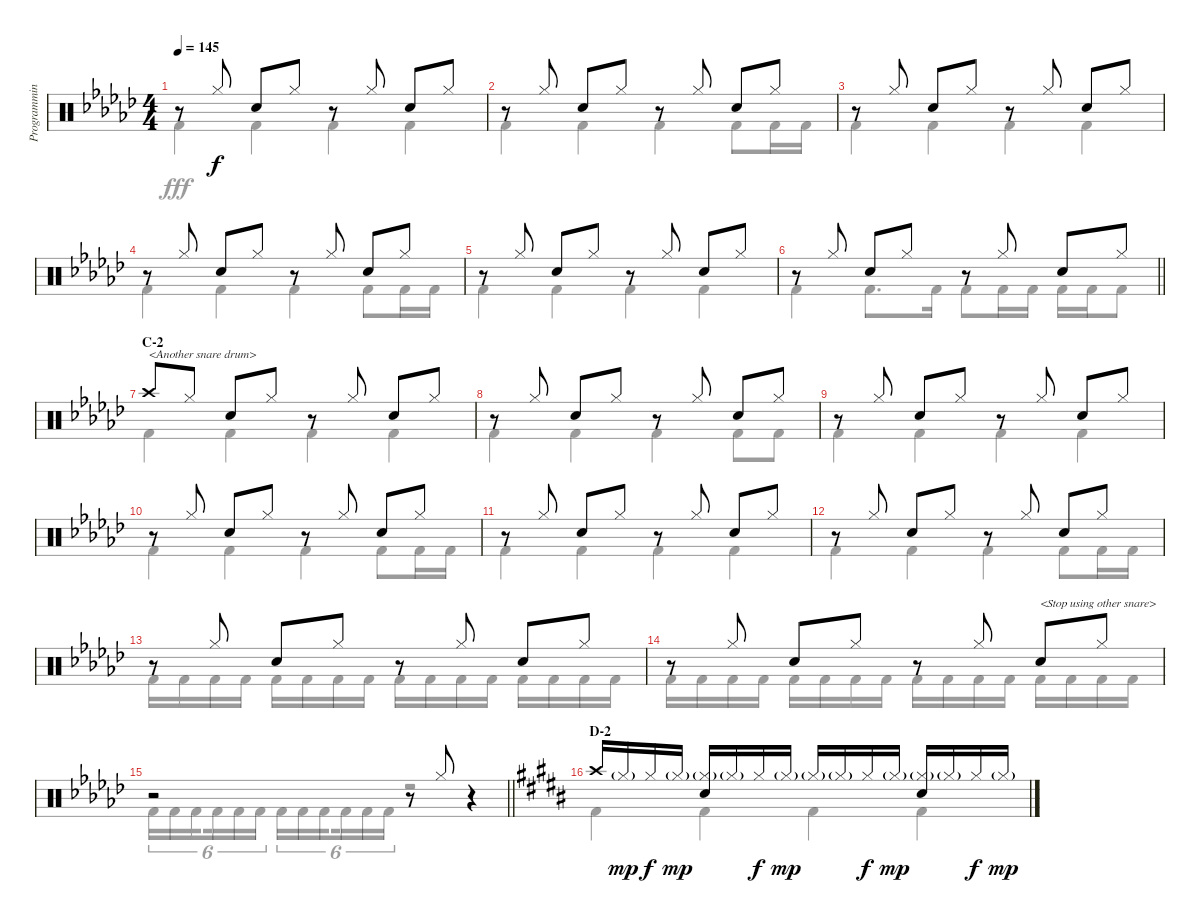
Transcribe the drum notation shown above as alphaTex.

\track ("Programming Drums I" "Programmin") {instrument percussion}
\staff {score}
\articulation defaults
\voice
\ts (4 4)
\tempo 145
\clef neutral
\ks gb
r.8{dy f} "Hi-Hat (closed)".8 "Snare (hit) 2".8 "Hi-Hat (closed)".8 r.8 "Hi-Hat (closed)".8 "Snare (hit) 2".8 "Hi-Hat (closed)".8 |
r.8 "Hi-Hat (closed)".8 "Snare (hit) 2".8 "Hi-Hat (closed)".8 r.8 "Hi-Hat (closed)".8 "Snare (hit) 2".8 "Hi-Hat (closed)".8 |
r.8 "Hi-Hat (closed)".8 "Snare (hit) 2".8 "Hi-Hat (closed)".8 r.8 "Hi-Hat (closed)".8 "Snare (hit) 2".8 "Hi-Hat (closed)".8 |
r.8 "Hi-Hat (closed)".8 "Snare (hit) 2".8 "Hi-Hat (closed)".8 r.8 "Hi-Hat (closed)".8 "Snare (hit) 2".8 "Hi-Hat (closed)".8 |
r.8 "Hi-Hat (closed)".8 "Snare (hit) 2".8 "Hi-Hat (closed)".8 r.8 "Hi-Hat (closed)".8 "Snare (hit) 2".8 "Hi-Hat (closed)".8 |
\barLineRight lightlight
r.8 "Hi-Hat (closed)".8 "Snare (hit) 2".8 "Hi-Hat (closed)".8 r.8 "Hi-Hat (closed)".8 "Snare (hit) 2".8 "Hi-Hat (closed)".8 |
\section ("" "C-2")
"Crash high (hit)".8{txt "<Another snare drum>"} "Hi-Hat (closed)".8 "Snare (hit) 2".8 "Hi-Hat (closed)".8 r.8 "Hi-Hat (closed)".8 "Snare (hit) 2".8 "Hi-Hat (closed)".8 |
r.8 "Hi-Hat (closed)".8 "Snare (hit) 2".8 "Hi-Hat (closed)".8 r.8 "Hi-Hat (closed)".8 "Snare (hit) 2".8 "Hi-Hat (closed)".8 |
r.8 "Hi-Hat (closed)".8 "Snare (hit) 2".8 "Hi-Hat (closed)".8 r.8 "Hi-Hat (closed)".8 "Snare (hit) 2".8 "Hi-Hat (closed)".8 |
r.8 "Hi-Hat (closed)".8 "Snare (hit) 2".8 "Hi-Hat (closed)".8 r.8 "Hi-Hat (closed)".8 "Snare (hit) 2".8 "Hi-Hat (closed)".8 |
r.8 "Hi-Hat (closed)".8 "Snare (hit) 2".8 "Hi-Hat (closed)".8 r.8 "Hi-Hat (closed)".8 "Snare (hit) 2".8 "Hi-Hat (closed)".8 |
r.8 "Hi-Hat (closed)".8 "Snare (hit) 2".8 "Hi-Hat (closed)".8 r.8 "Hi-Hat (closed)".8 "Snare (hit) 2".8 "Hi-Hat (closed)".8 |
r.8 "Hi-Hat (closed)".8 "Snare (hit) 2".8 "Hi-Hat (closed)".8 r.8 "Hi-Hat (closed)".8 "Snare (hit) 2".8 "Hi-Hat (closed)".8 |
r.8 "Hi-Hat (closed)".8 "Snare (hit) 2".8 "Hi-Hat (closed)".8 r.8 "Hi-Hat (closed)".8 "Snare (hit) 2".8{txt "<Stop using other snare>"} "Hi-Hat (closed)".8 |
\barLineRight lightlight
r.2 r.8 "Hi-Hat (closed)".8 r.4 |
\section ("" "D-2")
\ks b "Crash high (hit)".16 "Hi-Hat (closed)"{g}.16{dy mp} "Hi-Hat (closed)".16{dy f} "Hi-Hat (closed)"{g}.16{dy mp}
("Hi-Hat (closed)"{g} "Snare (hit) 2").16 "Hi-Hat (closed)"{g}.16 "Hi-Hat (closed)".16{dy f} "Hi-Hat (closed)"{g}.16{dy mp} "Hi-Hat (closed)"{g}.16 "Hi-Hat (closed)"{g}.16 "Hi-Hat (closed)".16{dy f} "Hi-Hat (closed)"{g}.16{dy mp} ("Hi-Hat (closed)"{g} "Snare (hit) 2").16 "Hi-Hat (closed)"{g}.16 "Hi-Hat (closed)".16{dy f} "Hi-Hat (closed)"{g}.16{dy mp}
\voice
\clef neutral
\ottava regular
\simile none
\ks gb "Kick (hit) 2".4{dy fff} "Kick (hit) 2".4 "Kick (hit) 2".4 "Kick (hit) 2".4
|
"Kick (hit) 2".4 "Kick (hit) 2".4 "Kick (hit) 2".4 "Kick (hit) 2".8 "Kick (hit) 2".16 "Kick (hit) 2".16 |
"Kick (hit) 2".4 "Kick (hit) 2".4 "Kick (hit) 2".4 "Kick (hit) 2".4 |
"Kick (hit) 2".4 "Kick (hit) 2".4 "Kick (hit) 2".4 "Kick (hit) 2".8 "Kick (hit) 2".16 "Kick (hit) 2".16 |
"Kick (hit) 2".4 "Kick (hit) 2".4 "Kick (hit) 2".4 "Kick (hit) 2".4 |
\barLineRight lightlight "Kick (hit) 2".4 "Kick (hit) 2".8{d} "Kick (hit) 2".16 "Kick (hit) 2".8 "Kick (hit) 2".16 "Kick (hit) 2".16 "Kick (hit) 2".16 "Kick (hit) 2".16 "Kick (hit) 2".8
|
"Kick (hit) 2".4 "Kick (hit) 2".4 "Kick (hit) 2".4 "Kick (hit) 2".4 |
"Kick (hit) 2".4 "Kick (hit) 2".4 "Kick (hit) 2".4 "Kick (hit) 2".8 "Kick (hit) 2".8 |
"Kick (hit) 2".4 "Kick (hit) 2".4 "Kick (hit) 2".4 "Kick (hit) 2".4 |
"Kick (hit) 2".4 "Kick (hit) 2".4 "Kick (hit) 2".4 "Kick (hit) 2".8 "Kick (hit) 2".16 "Kick (hit) 2".16 |
"Kick (hit) 2".4 "Kick (hit) 2".4 "Kick (hit) 2".4 "Kick (hit) 2".4 |
"Kick (hit) 2".4 "Kick (hit) 2".4 "Kick (hit) 2".4 "Kick (hit) 2".8 "Kick (hit) 2".16 "Kick (hit) 2".16 |
"Kick (hit) 2".16 "Kick (hit) 2".16 "Kick (hit) 2".16 "Kick (hit) 2".16 "Kick (hit) 2".16 "Kick (hit) 2".16 "Kick (hit) 2".16 "Kick (hit) 2".16 "Kick (hit) 2".16 "Kick (hit) 2".16 "Kick (hit) 2".16 "Kick (hit) 2".16 "Kick (hit) 2".16 "Kick (hit) 2".16 "Kick (hit) 2".16 "Kick (hit) 2".16 |
"Kick (hit) 2".16 "Kick (hit) 2".16 "Kick (hit) 2".16 "Kick (hit) 2".16 "Kick (hit) 2".16 "Kick (hit) 2".16 "Kick (hit) 2".16 "Kick (hit) 2".16 "Kick (hit) 2".16 "Kick (hit) 2".16 "Kick (hit) 2".16 "Kick (hit) 2".16 "Kick (hit) 2".16 "Kick (hit) 2".16 "Kick (hit) 2".16 "Kick (hit) 2".16 |
\barLineRight lightlight "Kick (hit) 2".16{tu (6 4)} "Kick (hit) 2".16{tu (6 4)} "Kick (hit) 2".16{tu (6 4) beam splitsecondary} "Kick (hit) 2".16{tu (6 4)} "Kick (hit) 2".16{tu (6 4)} "Kick (hit) 2".16{tu (6 4)} "Kick (hit) 2".16{tu (6 4)} "Kick (hit) 2".16{tu (6 4)} "Kick (hit) 2".16{tu (6 4) beam splitsecondary} "Kick (hit) 2".16{tu (6 4)} "Kick (hit) 2".16{tu (6 4)} "Kick (hit) 2".16{tu (6 4)}
r.2 |
\ks b "Kick (hit) 2".4 "Kick (hit) 2".4 "Kick (hit) 2".4 "Kick (hit) 2".4
